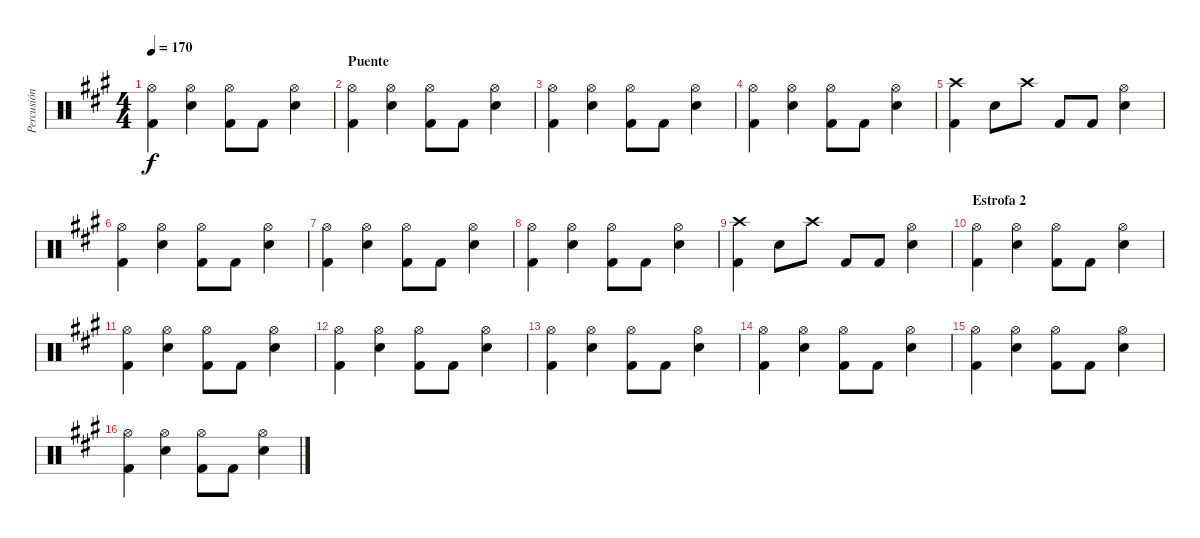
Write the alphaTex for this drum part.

\track ("Percusión" "Percusión") {instrument percussion}
\staff {score}
\articulation defaults
\ts (4 4)
\tempo 170
\clef neutral
\ks a
("Hi-Hat (open)" "Kick (hit) 2").4{dy f} ("Hi-Hat (open)" "Snare (hit) 2").4 ("Hi-Hat (open)" "Kick (hit) 2").8 "Kick (hit) 2".8 ("Hi-Hat (open)" "Snare (hit) 2").4 |
\section ("" "Puente")
("Hi-Hat (open)" "Kick (hit) 2").4 ("Hi-Hat (open)" "Snare (hit) 2").4 ("Hi-Hat (open)" "Kick (hit) 2").8 "Kick (hit) 2".8 ("Hi-Hat (open)" "Snare (hit) 2").4 |
("Hi-Hat (open)" "Kick (hit) 2").4 ("Hi-Hat (open)" "Snare (hit) 2").4 ("Hi-Hat (open)" "Kick (hit) 2").8 "Kick (hit) 2".8 ("Hi-Hat (open)" "Snare (hit) 2").4 |
("Hi-Hat (open)" "Kick (hit) 2").4 ("Hi-Hat (open)" "Snare (hit) 2").4 ("Hi-Hat (open)" "Kick (hit) 2").8 "Kick (hit) 2".8 ("Hi-Hat (open)" "Snare (hit) 2").4 |
("Crash high (hit)" "Kick (hit) 2").4 "Snare (hit) 2".8 "Crash high (hit)".8 "Kick (hit) 2".8 "Kick (hit) 2".8 ("Hi-Hat (open)" "Snare (hit) 2").4 |
("Hi-Hat (open)" "Kick (hit) 2").4 ("Hi-Hat (open)" "Snare (hit) 2").4 ("Hi-Hat (open)" "Kick (hit) 2").8 "Kick (hit) 2".8 ("Hi-Hat (open)" "Snare (hit) 2").4 |
("Hi-Hat (open)" "Kick (hit) 2").4 ("Hi-Hat (open)" "Snare (hit) 2").4 ("Hi-Hat (open)" "Kick (hit) 2").8 "Kick (hit) 2".8 ("Hi-Hat (open)" "Snare (hit) 2").4 |
("Hi-Hat (open)" "Kick (hit) 2").4 ("Hi-Hat (open)" "Snare (hit) 2").4 ("Hi-Hat (open)" "Kick (hit) 2").8 "Kick (hit) 2".8 ("Hi-Hat (open)" "Snare (hit) 2").4 |
("Crash high (hit)" "Kick (hit) 2").4 "Snare (hit) 2".8 "Crash high (hit)".8 "Kick (hit) 2".8 "Kick (hit) 2".8 ("Hi-Hat (open)" "Snare (hit) 2").4 |
\section ("" "Estrofa 2")
("Hi-Hat (open)" "Kick (hit) 2").4 ("Hi-Hat (open)" "Snare (hit) 2").4 ("Hi-Hat (open)" "Kick (hit) 2").8 "Kick (hit) 2".8 ("Hi-Hat (open)" "Snare (hit) 2").4 |
("Hi-Hat (open)" "Kick (hit) 2").4 ("Hi-Hat (open)" "Snare (hit) 2").4 ("Hi-Hat (open)" "Kick (hit) 2").8 "Kick (hit) 2".8 ("Hi-Hat (open)" "Snare (hit) 2").4 |
("Hi-Hat (open)" "Kick (hit) 2").4 ("Hi-Hat (open)" "Snare (hit) 2").4 ("Hi-Hat (open)" "Kick (hit) 2").8 "Kick (hit) 2".8 ("Hi-Hat (open)" "Snare (hit) 2").4 |
("Hi-Hat (open)" "Kick (hit) 2").4 ("Hi-Hat (open)" "Snare (hit) 2").4 ("Hi-Hat (open)" "Kick (hit) 2").8 "Kick (hit) 2".8 ("Hi-Hat (open)" "Snare (hit) 2").4 |
("Hi-Hat (open)" "Kick (hit) 2").4 ("Hi-Hat (open)" "Snare (hit) 2").4 ("Hi-Hat (open)" "Kick (hit) 2").8 "Kick (hit) 2".8 ("Hi-Hat (open)" "Snare (hit) 2").4 |
("Hi-Hat (open)" "Kick (hit) 2").4 ("Hi-Hat (open)" "Snare (hit) 2").4 ("Hi-Hat (open)" "Kick (hit) 2").8 "Kick (hit) 2".8 ("Hi-Hat (open)" "Snare (hit) 2").4 |
("Hi-Hat (open)" "Kick (hit) 2").4 ("Hi-Hat (open)" "Snare (hit) 2").4 ("Hi-Hat (open)" "Kick (hit) 2").8 "Kick (hit) 2".8 ("Hi-Hat (open)" "Snare (hit) 2").4
